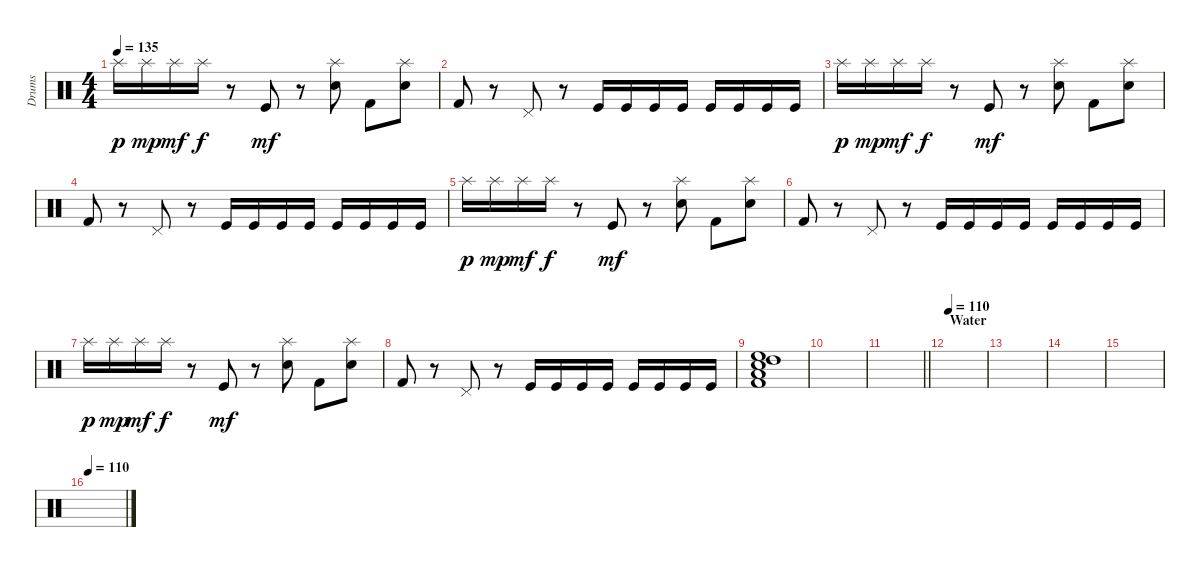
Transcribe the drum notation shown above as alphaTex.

\track ("Drums" "Drums") {instrument percussion}
\staff {score}
\articulation defaults
\ts (4 4)
\tempo 135
\clef neutral
\ks c "Splash (hit)".16{dy p} "Splash (hit)".16{dy mp} "Splash (hit)".16{dy mf} "Splash (hit)".16{dy f}
r.8 "Kick (hit)".8{dy mf} r.8 ("Splash (hit)" "Snare (hit) 2").8 "Kick (hit) 2".8 ("Splash (hit)" "Snare (hit) 2").8 |
"Kick (hit) 2".8 r.8 "Pedal Hi-Hat (hit)".8 r.8 "Kick (hit)".16 "Kick (hit)".16 "Kick (hit)".16 "Kick (hit)".16 "Kick (hit)".16 "Kick (hit)".16 "Kick (hit)".16 "Kick (hit)".16 |
"Splash (hit)".16{dy p} "Splash (hit)".16{dy mp} "Splash (hit)".16{dy mf} "Splash (hit)".16{dy f} r.8 "Kick (hit)".8{dy mf} r.8 ("Splash (hit)" "Snare (hit) 2").8 "Kick (hit) 2".8 ("Splash (hit)" "Snare (hit) 2").8 |
"Kick (hit) 2".8 r.8 "Pedal Hi-Hat (hit)".8 r.8 "Kick (hit)".16 "Kick (hit)".16 "Kick (hit)".16 "Kick (hit)".16 "Kick (hit)".16 "Kick (hit)".16 "Kick (hit)".16 "Kick (hit)".16 |
"Splash (hit)".16{dy p} "Splash (hit)".16{dy mp} "Splash (hit)".16{dy mf} "Splash (hit)".16{dy f} r.8 "Kick (hit)".8{dy mf} r.8 ("Splash (hit)" "Snare (hit) 2").8 "Kick (hit) 2".8 ("Splash (hit)" "Snare (hit) 2").8 |
"Kick (hit) 2".8 r.8 "Pedal Hi-Hat (hit)".8 r.8 "Kick (hit)".16 "Kick (hit)".16 "Kick (hit)".16 "Kick (hit)".16 "Kick (hit)".16 "Kick (hit)".16 "Kick (hit)".16 "Kick (hit)".16 |
"Splash (hit)".16{dy p} "Splash (hit)".16{dy mp} "Splash (hit)".16{dy mf} "Splash (hit)".16{dy f} r.8 "Kick (hit)".8{dy mf} r.8 ("Splash (hit)" "Snare (hit) 2").8 "Kick (hit) 2".8 ("Splash (hit)" "Snare (hit) 2").8 |
"Kick (hit) 2".8 r.8 "Pedal Hi-Hat (hit)".8 r.8 "Kick (hit)".16 "Kick (hit)".16 "Kick (hit)".16 "Kick (hit)".16 "Kick (hit)".16 "Kick (hit)".16 "Kick (hit)".16 "Kick (hit)".16 |
("High Tom (hit)" "Electric Snare (hit)" "High Floor Tom (hit)" "Low Floor Tom (hit)" "Kick (hit) 2").1 |
|
\barLineRight lightlight
|
\section ("" "Water")
\tempo 110
|
|
|
|
\tempo 110
